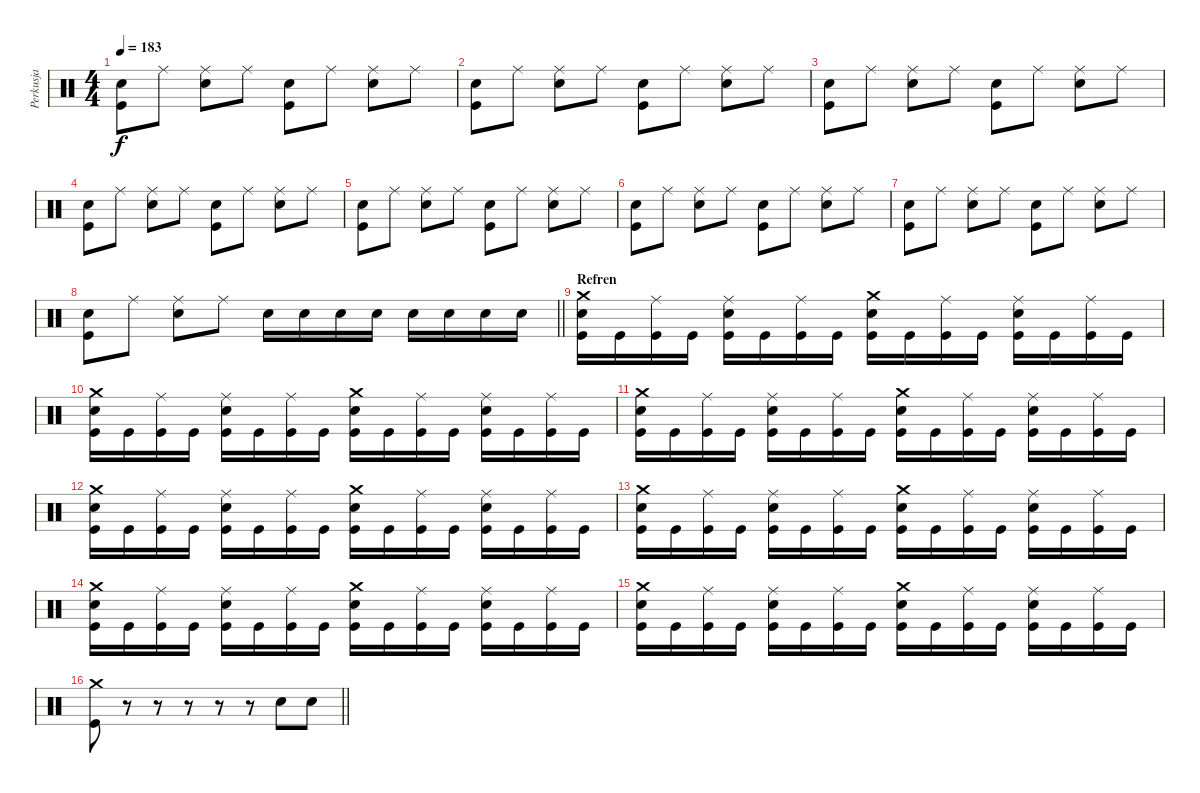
\track ("Perkusja" "Perkusja") {instrument percussion}
\staff {score}
\articulation defaults
\ts (4 4)
\tempo 183
\clef neutral
\ks c
("Kick (hit)" "Snare (hit) 2").8{dy f} "Ride (middle)".8 ("Ride (middle)" "Snare (hit) 2").8 "Ride (middle)".8 ("Kick (hit)" "Snare (hit) 2").8 "Ride (middle)".8 ("Ride (middle)" "Snare (hit) 2").8 "Ride (middle)".8 |
("Kick (hit)" "Snare (hit) 2").8 "Ride (middle)".8 ("Ride (middle)" "Snare (hit) 2").8 "Ride (middle)".8 ("Kick (hit)" "Snare (hit) 2").8 "Ride (middle)".8 ("Ride (middle)" "Snare (hit) 2").8 "Ride (middle)".8 |
("Kick (hit)" "Snare (hit) 2").8 "Ride (middle)".8 ("Ride (middle)" "Snare (hit) 2").8 "Ride (middle)".8 ("Kick (hit)" "Snare (hit) 2").8 "Ride (middle)".8 ("Ride (middle)" "Snare (hit) 2").8 "Ride (middle)".8 |
("Kick (hit)" "Snare (hit) 2").8 "Ride (middle)".8 ("Ride (middle)" "Snare (hit) 2").8 "Ride (middle)".8 ("Kick (hit)" "Snare (hit) 2").8 "Ride (middle)".8 ("Ride (middle)" "Snare (hit) 2").8 "Ride (middle)".8 |
("Kick (hit)" "Snare (hit) 2").8 "Ride (middle)".8 ("Ride (middle)" "Snare (hit) 2").8 "Ride (middle)".8 ("Kick (hit)" "Snare (hit) 2").8 "Ride (middle)".8 ("Ride (middle)" "Snare (hit) 2").8 "Ride (middle)".8 |
("Kick (hit)" "Snare (hit) 2").8 "Ride (middle)".8 ("Ride (middle)" "Snare (hit) 2").8 "Ride (middle)".8 ("Kick (hit)" "Snare (hit) 2").8 "Ride (middle)".8 ("Ride (middle)" "Snare (hit) 2").8 "Ride (middle)".8 |
("Kick (hit)" "Snare (hit) 2").8 "Ride (middle)".8 ("Ride (middle)" "Snare (hit) 2").8 "Ride (middle)".8 ("Kick (hit)" "Snare (hit) 2").8 "Ride (middle)".8 ("Ride (middle)" "Snare (hit) 2").8 "Ride (middle)".8 |
\barLineRight lightlight
("Kick (hit)" "Snare (hit) 2").8 "Ride (middle)".8 ("Snare (hit) 2" "Ride (middle)").8 "Ride (middle)".8 "Snare (hit) 2".16 "Snare (hit) 2".16 "Snare (hit) 2".16 "Snare (hit) 2".16 "Snare (hit) 2".16 "Snare (hit) 2".16 "Snare (hit) 2".16 "Snare (hit) 2".16 |
\section ("" "Refren")
("Kick (hit)" "Snare (hit) 2" "Crash medium (hit)").16 "Kick (hit)".16 ("Kick (hit)" "Ride (middle)").16 "Kick (hit)".16 ("Kick (hit)" "Ride (middle)" "Snare (hit) 2").16 "Kick (hit)".16 ("Kick (hit)" "Ride (middle)").16 "Kick (hit)".16 ("Kick (hit)" "Snare (hit) 2" "Crash medium (hit)").16 "Kick (hit)".16 ("Kick (hit)" "Ride (middle)").16 "Kick (hit)".16 ("Kick (hit)" "Ride (middle)" "Snare (hit) 2").16 "Kick (hit)".16 ("Kick (hit)" "Ride (middle)").16 "Kick (hit)".16 |
("Kick (hit)" "Snare (hit) 2" "Crash medium (hit)").16 "Kick (hit)".16 ("Kick (hit)" "Ride (middle)").16 "Kick (hit)".16 ("Kick (hit)" "Ride (middle)" "Snare (hit) 2").16 "Kick (hit)".16 ("Kick (hit)" "Ride (middle)").16 "Kick (hit)".16 ("Kick (hit)" "Snare (hit) 2" "Crash medium (hit)").16 "Kick (hit)".16 ("Kick (hit)" "Ride (middle)").16 "Kick (hit)".16 ("Kick (hit)" "Ride (middle)" "Snare (hit) 2").16 "Kick (hit)".16 ("Kick (hit)" "Ride (middle)").16 "Kick (hit)".16 |
("Kick (hit)" "Snare (hit) 2" "Crash medium (hit)").16 "Kick (hit)".16 ("Kick (hit)" "Ride (middle)").16 "Kick (hit)".16 ("Kick (hit)" "Ride (middle)" "Snare (hit) 2").16 "Kick (hit)".16 ("Kick (hit)" "Ride (middle)").16 "Kick (hit)".16 ("Kick (hit)" "Snare (hit) 2" "Crash medium (hit)").16 "Kick (hit)".16 ("Kick (hit)" "Ride (middle)").16 "Kick (hit)".16 ("Kick (hit)" "Ride (middle)" "Snare (hit) 2").16 "Kick (hit)".16 ("Kick (hit)" "Ride (middle)").16 "Kick (hit)".16 |
("Kick (hit)" "Snare (hit) 2" "Crash medium (hit)").16 "Kick (hit)".16 ("Kick (hit)" "Ride (middle)").16 "Kick (hit)".16 ("Kick (hit)" "Ride (middle)" "Snare (hit) 2").16 "Kick (hit)".16 ("Kick (hit)" "Ride (middle)").16 "Kick (hit)".16 ("Kick (hit)" "Snare (hit) 2" "Crash medium (hit)").16 "Kick (hit)".16 ("Kick (hit)" "Ride (middle)").16 "Kick (hit)".16 ("Kick (hit)" "Ride (middle)" "Snare (hit) 2").16 "Kick (hit)".16 ("Kick (hit)" "Ride (middle)").16 "Kick (hit)".16 |
("Kick (hit)" "Snare (hit) 2" "Crash medium (hit)").16 "Kick (hit)".16 ("Kick (hit)" "Ride (middle)").16 "Kick (hit)".16 ("Kick (hit)" "Ride (middle)" "Snare (hit) 2").16 "Kick (hit)".16 ("Kick (hit)" "Ride (middle)").16 "Kick (hit)".16 ("Kick (hit)" "Snare (hit) 2" "Crash medium (hit)").16 "Kick (hit)".16 ("Kick (hit)" "Ride (middle)").16 "Kick (hit)".16 ("Kick (hit)" "Ride (middle)" "Snare (hit) 2").16 "Kick (hit)".16 ("Kick (hit)" "Ride (middle)").16 "Kick (hit)".16 |
("Kick (hit)" "Snare (hit) 2" "Crash medium (hit)").16 "Kick (hit)".16 ("Kick (hit)" "Ride (middle)").16 "Kick (hit)".16 ("Kick (hit)" "Ride (middle)" "Snare (hit) 2").16 "Kick (hit)".16 ("Kick (hit)" "Ride (middle)").16 "Kick (hit)".16 ("Kick (hit)" "Snare (hit) 2" "Crash medium (hit)").16 "Kick (hit)".16 ("Kick (hit)" "Ride (middle)").16 "Kick (hit)".16 ("Kick (hit)" "Ride (middle)" "Snare (hit) 2").16 "Kick (hit)".16 ("Kick (hit)" "Ride (middle)").16 "Kick (hit)".16 |
("Kick (hit)" "Snare (hit) 2" "Crash medium (hit)").16 "Kick (hit)".16 ("Kick (hit)" "Ride (middle)").16 "Kick (hit)".16 ("Kick (hit)" "Ride (middle)" "Snare (hit) 2").16 "Kick (hit)".16 ("Kick (hit)" "Ride (middle)").16 "Kick (hit)".16 ("Kick (hit)" "Snare (hit) 2" "Crash medium (hit)").16 "Kick (hit)".16 ("Kick (hit)" "Ride (middle)").16 "Kick (hit)".16 ("Kick (hit)" "Ride (middle)" "Snare (hit) 2").16 "Kick (hit)".16 ("Kick (hit)" "Ride (middle)").16 "Kick (hit)".16 |
\barLineRight lightlight
("Kick (hit)" "Crash medium (hit)").8 r.8 r.8 r.8 r.8 r.8 "Snare (hit) 2".8 "Snare (hit) 2".8
